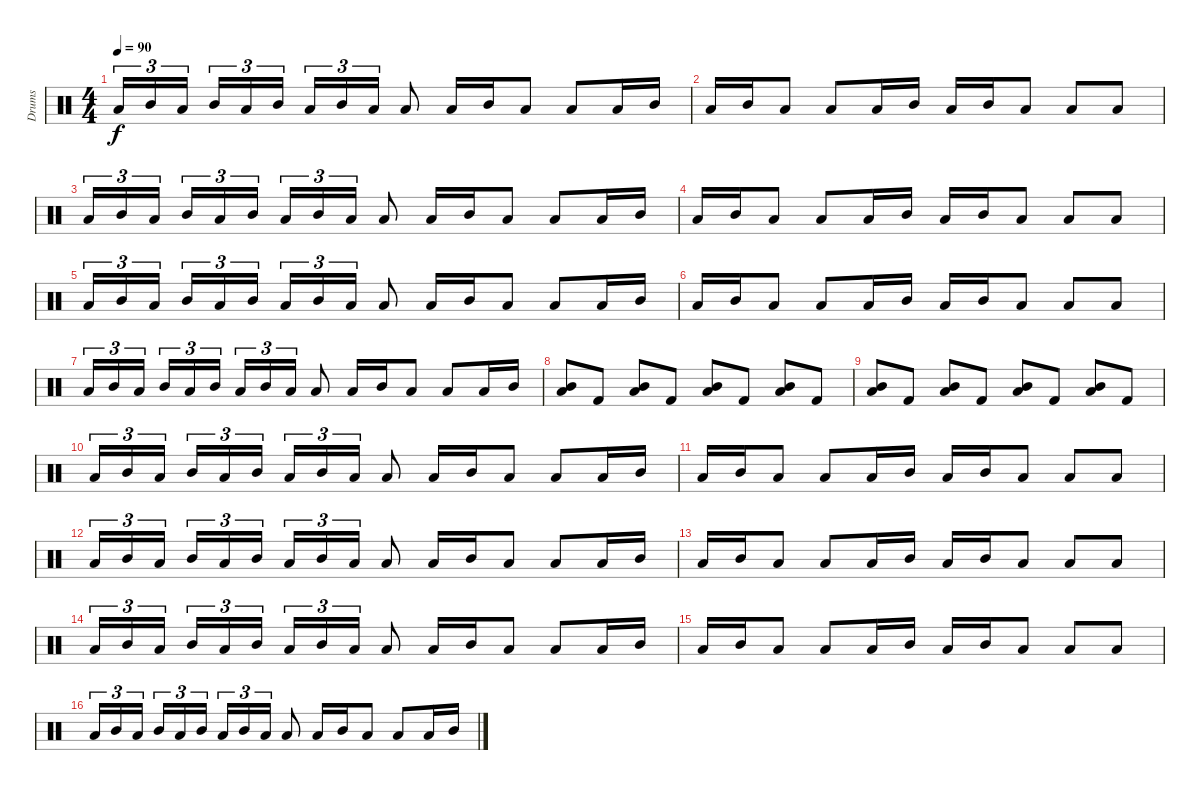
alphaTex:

\track ("Drums" "Drums") {instrument percussion}
\staff {score}
\articulation defaults
\ts (4 4)
\tempo 90
\clef neutral
\ks c "Low Tom (hit)".16{tu (3 2) dy f} "Mid Tom (hit)".16{tu (3 2)} "Low Tom (hit)".16{tu (3 2) beam splitsecondary} "Mid Tom (hit)".16{tu (3 2)} "Low Tom (hit)".16{tu (3 2)} "Mid Tom (hit)".16{tu (3 2)} "Low Tom (hit)".16{tu (3 2)} "Mid Tom (hit)".16{tu (3 2)} "Low Tom (hit)".16{tu (3 2)} "Low Tom (hit)".8 "Low Tom (hit)".16 "Mid Tom (hit)".16 "Low Tom (hit)".8 "Low Tom (hit)".8 "Low Tom (hit)".16 "Mid Tom (hit)".16
|
"Low Tom (hit)".16 "Mid Tom (hit)".16 "Low Tom (hit)".8 "Low Tom (hit)".8 "Low Tom (hit)".16 "Mid Tom (hit)".16 "Low Tom (hit)".16 "Mid Tom (hit)".16 "Low Tom (hit)".8 "Low Tom (hit)".8 "Low Tom (hit)".8 |
"Low Tom (hit)".16{tu (3 2)} "Mid Tom (hit)".16{tu (3 2)} "Low Tom (hit)".16{tu (3 2) beam splitsecondary} "Mid Tom (hit)".16{tu (3 2)} "Low Tom (hit)".16{tu (3 2)} "Mid Tom (hit)".16{tu (3 2)} "Low Tom (hit)".16{tu (3 2)} "Mid Tom (hit)".16{tu (3 2)} "Low Tom (hit)".16{tu (3 2)} "Low Tom (hit)".8 "Low Tom (hit)".16 "Mid Tom (hit)".16 "Low Tom (hit)".8 "Low Tom (hit)".8 "Low Tom (hit)".16 "Mid Tom (hit)".16 |
"Low Tom (hit)".16 "Mid Tom (hit)".16 "Low Tom (hit)".8 "Low Tom (hit)".8 "Low Tom (hit)".16 "Mid Tom (hit)".16 "Low Tom (hit)".16 "Mid Tom (hit)".16 "Low Tom (hit)".8 "Low Tom (hit)".8 "Low Tom (hit)".8 |
"Low Tom (hit)".16{tu (3 2)} "Mid Tom (hit)".16{tu (3 2)} "Low Tom (hit)".16{tu (3 2) beam splitsecondary} "Mid Tom (hit)".16{tu (3 2)} "Low Tom (hit)".16{tu (3 2)} "Mid Tom (hit)".16{tu (3 2)} "Low Tom (hit)".16{tu (3 2)} "Mid Tom (hit)".16{tu (3 2)} "Low Tom (hit)".16{tu (3 2)} "Low Tom (hit)".8 "Low Tom (hit)".16 "Mid Tom (hit)".16 "Low Tom (hit)".8 "Low Tom (hit)".8 "Low Tom (hit)".16 "Mid Tom (hit)".16 |
"Low Tom (hit)".16 "Mid Tom (hit)".16 "Low Tom (hit)".8 "Low Tom (hit)".8 "Low Tom (hit)".16 "Mid Tom (hit)".16 "Low Tom (hit)".16 "Mid Tom (hit)".16 "Low Tom (hit)".8 "Low Tom (hit)".8 "Low Tom (hit)".8 |
"Low Tom (hit)".16{tu (3 2)} "Mid Tom (hit)".16{tu (3 2)} "Low Tom (hit)".16{tu (3 2) beam splitsecondary} "Mid Tom (hit)".16{tu (3 2)} "Low Tom (hit)".16{tu (3 2)} "Mid Tom (hit)".16{tu (3 2)} "Low Tom (hit)".16{tu (3 2)} "Mid Tom (hit)".16{tu (3 2)} "Low Tom (hit)".16{tu (3 2)} "Low Tom (hit)".8 "Low Tom (hit)".16 "Mid Tom (hit)".16 "Low Tom (hit)".8 "Low Tom (hit)".8 "Low Tom (hit)".16 "Mid Tom (hit)".16 |
("Mid Tom (hit)" "Low Tom (hit)").8 "Kick (hit) 2".8 ("Mid Tom (hit)" "Low Tom (hit)").8 "Kick (hit) 2".8 ("Mid Tom (hit)" "Low Tom (hit)").8 "Kick (hit) 2".8 ("Mid Tom (hit)" "Low Tom (hit)").8 "Kick (hit) 2".8 |
("Mid Tom (hit)" "Low Tom (hit)").8 "Kick (hit) 2".8 ("Mid Tom (hit)" "Low Tom (hit)").8 "Kick (hit) 2".8 ("Mid Tom (hit)" "Low Tom (hit)").8 "Kick (hit) 2".8 ("Mid Tom (hit)" "Low Tom (hit)").8 "Kick (hit) 2".8 |
"Low Tom (hit)".16{tu (3 2)} "Mid Tom (hit)".16{tu (3 2)} "Low Tom (hit)".16{tu (3 2) beam splitsecondary} "Mid Tom (hit)".16{tu (3 2)} "Low Tom (hit)".16{tu (3 2)} "Mid Tom (hit)".16{tu (3 2)} "Low Tom (hit)".16{tu (3 2)} "Mid Tom (hit)".16{tu (3 2)} "Low Tom (hit)".16{tu (3 2)} "Low Tom (hit)".8 "Low Tom (hit)".16 "Mid Tom (hit)".16 "Low Tom (hit)".8 "Low Tom (hit)".8 "Low Tom (hit)".16 "Mid Tom (hit)".16 |
"Low Tom (hit)".16 "Mid Tom (hit)".16 "Low Tom (hit)".8 "Low Tom (hit)".8 "Low Tom (hit)".16 "Mid Tom (hit)".16 "Low Tom (hit)".16 "Mid Tom (hit)".16 "Low Tom (hit)".8 "Low Tom (hit)".8 "Low Tom (hit)".8 |
"Low Tom (hit)".16{tu (3 2)} "Mid Tom (hit)".16{tu (3 2)} "Low Tom (hit)".16{tu (3 2) beam splitsecondary} "Mid Tom (hit)".16{tu (3 2)} "Low Tom (hit)".16{tu (3 2)} "Mid Tom (hit)".16{tu (3 2)} "Low Tom (hit)".16{tu (3 2)} "Mid Tom (hit)".16{tu (3 2)} "Low Tom (hit)".16{tu (3 2)} "Low Tom (hit)".8 "Low Tom (hit)".16 "Mid Tom (hit)".16 "Low Tom (hit)".8 "Low Tom (hit)".8 "Low Tom (hit)".16 "Mid Tom (hit)".16 |
"Low Tom (hit)".16 "Mid Tom (hit)".16 "Low Tom (hit)".8 "Low Tom (hit)".8 "Low Tom (hit)".16 "Mid Tom (hit)".16 "Low Tom (hit)".16 "Mid Tom (hit)".16 "Low Tom (hit)".8 "Low Tom (hit)".8 "Low Tom (hit)".8 |
"Low Tom (hit)".16{tu (3 2)} "Mid Tom (hit)".16{tu (3 2)} "Low Tom (hit)".16{tu (3 2) beam splitsecondary} "Mid Tom (hit)".16{tu (3 2)} "Low Tom (hit)".16{tu (3 2)} "Mid Tom (hit)".16{tu (3 2)} "Low Tom (hit)".16{tu (3 2)} "Mid Tom (hit)".16{tu (3 2)} "Low Tom (hit)".16{tu (3 2)} "Low Tom (hit)".8 "Low Tom (hit)".16 "Mid Tom (hit)".16 "Low Tom (hit)".8 "Low Tom (hit)".8 "Low Tom (hit)".16 "Mid Tom (hit)".16 |
"Low Tom (hit)".16 "Mid Tom (hit)".16 "Low Tom (hit)".8 "Low Tom (hit)".8 "Low Tom (hit)".16 "Mid Tom (hit)".16 "Low Tom (hit)".16 "Mid Tom (hit)".16 "Low Tom (hit)".8 "Low Tom (hit)".8 "Low Tom (hit)".8 |
"Low Tom (hit)".16{tu (3 2)} "Mid Tom (hit)".16{tu (3 2)} "Low Tom (hit)".16{tu (3 2) beam splitsecondary} "Mid Tom (hit)".16{tu (3 2)} "Low Tom (hit)".16{tu (3 2)} "Mid Tom (hit)".16{tu (3 2)} "Low Tom (hit)".16{tu (3 2)} "Mid Tom (hit)".16{tu (3 2)} "Low Tom (hit)".16{tu (3 2)} "Low Tom (hit)".8 "Low Tom (hit)".16 "Mid Tom (hit)".16 "Low Tom (hit)".8 "Low Tom (hit)".8 "Low Tom (hit)".16 "Mid Tom (hit)".16
